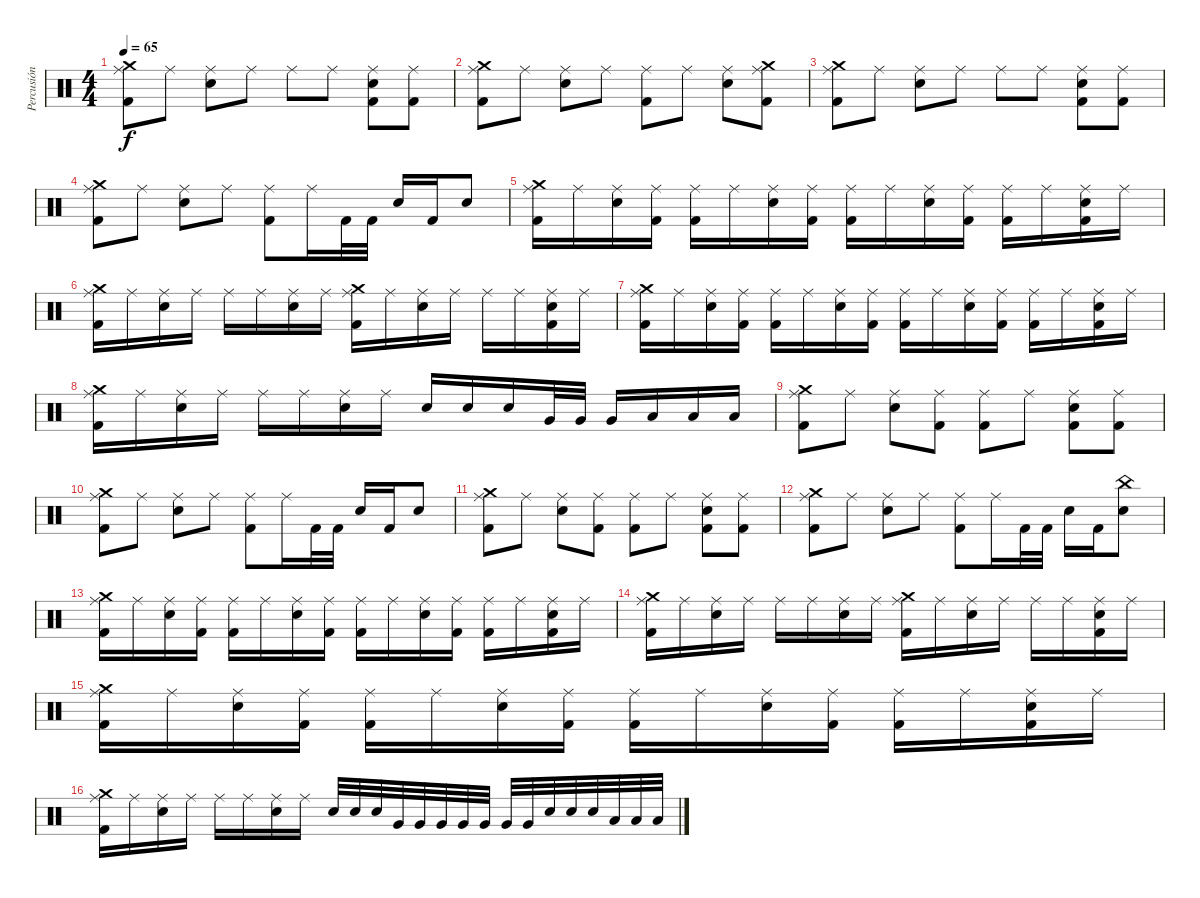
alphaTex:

\track ("Percusión" "Percusión") {instrument percussion}
\staff {score}
\articulation defaults
\ts (4 4)
\tempo 65
\clef neutral
\ks c
("Ride (middle)" "Crash medium (hit)" "Kick (hit) 2").8{dy f} "Ride (middle)".8 ("Ride (middle)" "Snare (hit) 2").8 "Ride (middle)".8 "Ride (middle)".8 "Ride (middle)".8 ("Ride (middle)" "Snare (hit) 2" "Kick (hit) 2").8 ("Ride (middle)" "Kick (hit) 2").8 |
("Ride (middle)" "Crash medium (hit)" "Kick (hit) 2").8 "Ride (middle)".8 ("Ride (middle)" "Snare (hit) 2").8 "Ride (middle)".8 ("Ride (middle)" "Kick (hit) 2").8 "Ride (middle)".8 ("Ride (middle)" "Snare (hit) 2").8 ("Ride (middle)" "Crash medium (hit)" "Kick (hit) 2").8 |
("Ride (middle)" "Crash medium (hit)" "Kick (hit) 2").8 "Ride (middle)".8 ("Ride (middle)" "Snare (hit) 2").8 "Ride (middle)".8 "Ride (middle)".8 "Ride (middle)".8 ("Ride (middle)" "Snare (hit) 2" "Kick (hit) 2").8 ("Ride (middle)" "Kick (hit) 2").8 |
("Ride (middle)" "Crash medium (hit)" "Kick (hit) 2").8 "Ride (middle)".8 ("Ride (middle)" "Snare (hit) 2").8 "Ride (middle)".8 ("Ride (middle)" "Kick (hit) 2").8 "Ride (middle)".16 "Kick (hit) 2".32 "Kick (hit) 2".32 "Snare (hit) 2".16 "Kick (hit) 2".16 "Snare (hit) 2".8 |
("Ride (middle)" "Crash medium (hit)" "Kick (hit) 2").16 "Ride (middle)".16 ("Ride (middle)" "Snare (hit) 2").16 ("Ride (middle)" "Kick (hit) 2").16 ("Ride (middle)" "Kick (hit) 2").16 "Ride (middle)".16 ("Ride (middle)" "Snare (hit) 2").16 ("Ride (middle)" "Kick (hit) 2").16 ("Ride (middle)" "Kick (hit) 2").16 "Ride (middle)".16 ("Ride (middle)" "Snare (hit) 2").16 ("Ride (middle)" "Kick (hit) 2").16 ("Ride (middle)" "Kick (hit) 2").16 "Ride (middle)".16 ("Ride (middle)" "Snare (hit) 2" "Kick (hit) 2").16 "Ride (middle)".16 |
("Ride (middle)" "Crash medium (hit)" "Kick (hit) 2").16 "Ride (middle)".16 ("Ride (middle)" "Snare (hit) 2").16 "Ride (middle)".16 "Ride (middle)".16 "Ride (middle)".16 ("Ride (middle)" "Snare (hit) 2").16 "Ride (middle)".16 ("Ride (middle)" "Crash medium (hit)" "Kick (hit) 2").16 "Ride (middle)".16 ("Ride (middle)" "Snare (hit) 2").16 "Ride (middle)".16 "Ride (middle)".16 "Ride (middle)".16 ("Ride (middle)" "Snare (hit) 2" "Kick (hit) 2").16 "Ride (middle)".16 |
("Ride (middle)" "Crash medium (hit)" "Kick (hit) 2").16 "Ride (middle)".16 ("Ride (middle)" "Snare (hit) 2").16 ("Ride (middle)" "Kick (hit) 2").16 ("Ride (middle)" "Kick (hit) 2").16 "Ride (middle)".16 ("Ride (middle)" "Snare (hit) 2").16 ("Ride (middle)" "Kick (hit) 2").16 ("Ride (middle)" "Kick (hit) 2").16 "Ride (middle)".16 ("Ride (middle)" "Snare (hit) 2").16 ("Ride (middle)" "Kick (hit) 2").16 ("Ride (middle)" "Kick (hit) 2").16 "Ride (middle)".16 ("Ride (middle)" "Snare (hit) 2" "Kick (hit) 2").16 "Ride (middle)".16 |
("Ride (middle)" "Crash medium (hit)" "Kick (hit) 2").16 "Ride (middle)".16 ("Ride (middle)" "Snare (hit) 2").16 "Ride (middle)".16 "Ride (middle)".16 "Ride (middle)".16 ("Ride (middle)" "Snare (hit) 2").16 "Ride (middle)".16 "Snare (hit) 2".16 "Snare (hit) 2".16 "Snare (hit) 2".16 "Very Low Tom (hit)".32 "Very Low Tom (hit)".32 "Very Low Tom (hit)".16 "Low Floor Tom (hit)".16 "Low Floor Tom (hit)".16 "Low Floor Tom (hit)".16 |
("Ride (middle)" "Crash medium (hit)" "Kick (hit) 2").8 "Ride (middle)".8 ("Ride (middle)" "Snare (hit) 2").8 ("Ride (middle)" "Kick (hit) 2").8 ("Ride (middle)" "Kick (hit) 2").8 "Ride (middle)".8 ("Ride (middle)" "Snare (hit) 2" "Kick (hit) 2").8 ("Ride (middle)" "Kick (hit) 2").8 |
("Ride (middle)" "Crash medium (hit)" "Kick (hit) 2").8 "Ride (middle)".8 ("Ride (middle)" "Snare (hit) 2").8 "Ride (middle)".8 ("Ride (middle)" "Kick (hit) 2").8 "Ride (middle)".16 "Kick (hit) 2".32 "Kick (hit) 2".32 "Snare (hit) 2".16 "Kick (hit) 2".16 "Snare (hit) 2".8 |
("Ride (middle)" "Crash medium (hit)" "Kick (hit) 2").8 "Ride (middle)".8 ("Ride (middle)" "Snare (hit) 2").8 ("Ride (middle)" "Kick (hit) 2").8 ("Ride (middle)" "Kick (hit) 2").8 "Ride (middle)".8 ("Ride (middle)" "Snare (hit) 2" "Kick (hit) 2").8 ("Ride (middle)" "Kick (hit) 2").8 |
("Ride (middle)" "Crash medium (hit)" "Kick (hit) 2").8 "Ride (middle)".8 ("Ride (middle)" "Snare (hit) 2").8 "Ride (middle)".8 ("Ride (middle)" "Kick (hit) 2").8 "Ride (middle)".16 "Kick (hit) 2".32 "Kick (hit) 2".32 "Snare (hit) 2".16 "Kick (hit) 2".16 ("Snare (hit) 2" "China (hit)").8 |
("Ride (middle)" "Crash medium (hit)" "Kick (hit) 2").16 "Ride (middle)".16 ("Ride (middle)" "Snare (hit) 2").16 ("Ride (middle)" "Kick (hit) 2").16 ("Ride (middle)" "Kick (hit) 2").16 "Ride (middle)".16 ("Ride (middle)" "Snare (hit) 2").16 ("Ride (middle)" "Kick (hit) 2").16 ("Ride (middle)" "Kick (hit) 2").16 "Ride (middle)".16 ("Ride (middle)" "Snare (hit) 2").16 ("Ride (middle)" "Kick (hit) 2").16 ("Ride (middle)" "Kick (hit) 2").16 "Ride (middle)".16 ("Ride (middle)" "Snare (hit) 2" "Kick (hit) 2").16 "Ride (middle)".16 |
("Ride (middle)" "Crash medium (hit)" "Kick (hit) 2").16 "Ride (middle)".16 ("Ride (middle)" "Snare (hit) 2").16 "Ride (middle)".16 "Ride (middle)".16 "Ride (middle)".16 ("Ride (middle)" "Snare (hit) 2").16 "Ride (middle)".16 ("Ride (middle)" "Crash medium (hit)" "Kick (hit) 2").16 "Ride (middle)".16 ("Ride (middle)" "Snare (hit) 2").16 "Ride (middle)".16 "Ride (middle)".16 "Ride (middle)".16 ("Ride (middle)" "Snare (hit) 2" "Kick (hit) 2").16 "Ride (middle)".16 |
("Ride (middle)" "Crash medium (hit)" "Kick (hit) 2").16 "Ride (middle)".16 ("Ride (middle)" "Snare (hit) 2").16 ("Ride (middle)" "Kick (hit) 2").16 ("Ride (middle)" "Kick (hit) 2").16 "Ride (middle)".16 ("Ride (middle)" "Snare (hit) 2").16 ("Ride (middle)" "Kick (hit) 2").16 ("Ride (middle)" "Kick (hit) 2").16 "Ride (middle)".16 ("Ride (middle)" "Snare (hit) 2").16 ("Ride (middle)" "Kick (hit) 2").16 ("Ride (middle)" "Kick (hit) 2").16 "Ride (middle)".16 ("Ride (middle)" "Snare (hit) 2" "Kick (hit) 2").16 "Ride (middle)".16 |
("Ride (middle)" "Crash medium (hit)" "Kick (hit) 2").16 "Ride (middle)".16 ("Ride (middle)" "Snare (hit) 2").16 "Ride (middle)".16 "Ride (middle)".16 "Ride (middle)".16 ("Ride (middle)" "Snare (hit) 2").16 "Ride (middle)".16 "Snare (hit) 2".32 "Snare (hit) 2".32 "Snare (hit) 2".32 "Very Low Tom (hit)".32 "Very Low Tom (hit)".32 "Very Low Tom (hit)".32 "Very Low Tom (hit)".32 "Very Low Tom (hit)".32 "Very Low Tom (hit)".32 "Very Low Tom (hit)".32 "Snare (hit) 2".32 "Snare (hit) 2".32 "Snare (hit) 2".32 "Low Floor Tom (hit)".32 "Low Floor Tom (hit)".32 "Low Floor Tom (hit)".32
